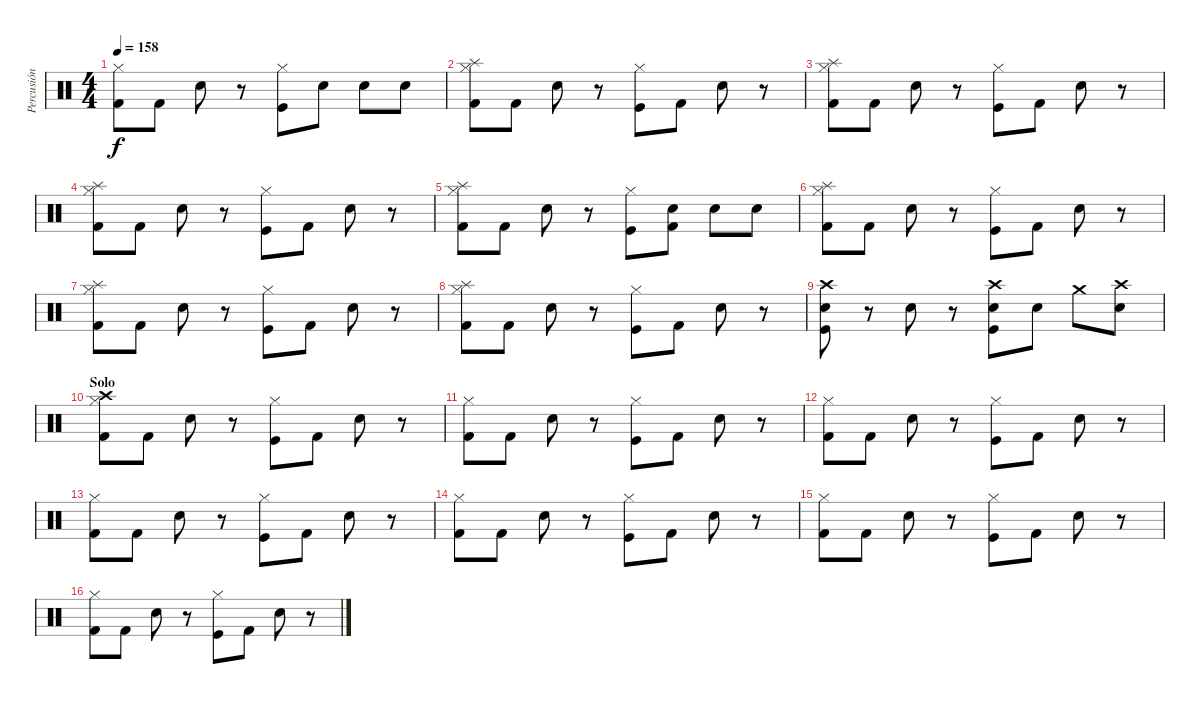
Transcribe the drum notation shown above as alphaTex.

\track ("Percusión" "Percusión") {instrument percussion}
\staff {score}
\articulation defaults
\ts (4 4)
\tempo 158
\clef neutral
\ks c
("Hi-Hat (closed)" "Kick (hit) 2").8{dy f} "Kick (hit) 2".8 "Electric Snare (hit)".8 r.8 ("Hi-Hat (closed)" "Kick (hit)").8 "Electric Snare (hit)".8 "Electric Snare (hit)".8 "Electric Snare (hit)".8 |
("Hi-Hat (closed)" "Splash (hit)" "Kick (hit) 2").8 "Kick (hit) 2".8 "Electric Snare (hit)".8 r.8 ("Hi-Hat (closed)" "Kick (hit)").8 "Kick (hit) 2".8 "Electric Snare (hit)".8 r.8 |
("Hi-Hat (closed)" "Splash (hit)" "Kick (hit) 2").8 "Kick (hit) 2".8 "Electric Snare (hit)".8 r.8 ("Hi-Hat (closed)" "Kick (hit)").8 "Kick (hit) 2".8 "Electric Snare (hit)".8 r.8 |
("Hi-Hat (closed)" "Splash (hit)" "Kick (hit) 2").8 "Kick (hit) 2".8 "Electric Snare (hit)".8 r.8 ("Hi-Hat (closed)" "Kick (hit)").8 "Kick (hit) 2".8 "Electric Snare (hit)".8 r.8 |
("Hi-Hat (closed)" "Splash (hit)" "Kick (hit) 2").8 "Kick (hit) 2".8 "Electric Snare (hit)".8 r.8 ("Hi-Hat (closed)" "Kick (hit)").8 ("Electric Snare (hit)" "Kick (hit) 2").8 "Electric Snare (hit)".8 "Electric Snare (hit)".8 |
("Hi-Hat (closed)" "Splash (hit)" "Kick (hit) 2").8 "Kick (hit) 2".8 "Electric Snare (hit)".8 r.8 ("Hi-Hat (closed)" "Kick (hit)").8 "Kick (hit) 2".8 "Electric Snare (hit)".8 r.8 |
("Hi-Hat (closed)" "Splash (hit)" "Kick (hit) 2").8 "Kick (hit) 2".8 "Electric Snare (hit)".8 r.8 ("Hi-Hat (closed)" "Kick (hit)").8 "Kick (hit) 2".8 "Electric Snare (hit)".8 r.8 |
("Hi-Hat (closed)" "Splash (hit)" "Kick (hit) 2").8 "Kick (hit) 2".8 "Electric Snare (hit)".8 r.8 ("Hi-Hat (closed)" "Kick (hit)").8 "Kick (hit) 2".8 "Electric Snare (hit)".8 r.8 |
("Electric Snare (hit)" "Kick (hit)" "Crash high (hit)").8 r.8 "Electric Snare (hit)".8 r.8 ("Electric Snare (hit)" "Kick (hit)" "Crash high (hit)").8 "Electric Snare (hit)".8 "Crash medium (hit)".8 ("Electric Snare (hit)" "Crash high (hit)").8 |
\section ("" "Solo")
("Hi-Hat (closed)" "Kick (hit) 2" "Crash high (hit)").8 "Kick (hit) 2".8 "Electric Snare (hit)".8 r.8 ("Hi-Hat (closed)" "Kick (hit)").8 "Kick (hit) 2".8 "Electric Snare (hit)".8 r.8 |
("Hi-Hat (closed)" "Kick (hit) 2").8 "Kick (hit) 2".8 "Electric Snare (hit)".8 r.8 ("Hi-Hat (closed)" "Kick (hit)").8 "Kick (hit) 2".8 "Electric Snare (hit)".8 r.8 |
("Hi-Hat (closed)" "Kick (hit) 2").8 "Kick (hit) 2".8 "Electric Snare (hit)".8 r.8 ("Hi-Hat (closed)" "Kick (hit)").8 "Kick (hit) 2".8 "Electric Snare (hit)".8 r.8 |
("Hi-Hat (closed)" "Kick (hit) 2").8 "Kick (hit) 2".8 "Electric Snare (hit)".8 r.8 ("Hi-Hat (closed)" "Kick (hit)").8 "Kick (hit) 2".8 "Electric Snare (hit)".8 r.8 |
("Hi-Hat (closed)" "Kick (hit) 2").8 "Kick (hit) 2".8 "Electric Snare (hit)".8 r.8 ("Hi-Hat (closed)" "Kick (hit)").8 "Kick (hit) 2".8 "Electric Snare (hit)".8 r.8 |
("Hi-Hat (closed)" "Kick (hit) 2").8 "Kick (hit) 2".8 "Electric Snare (hit)".8 r.8 ("Hi-Hat (closed)" "Kick (hit)").8 "Kick (hit) 2".8 "Electric Snare (hit)".8 r.8 |
("Hi-Hat (closed)" "Kick (hit) 2").8 "Kick (hit) 2".8 "Electric Snare (hit)".8 r.8 ("Hi-Hat (closed)" "Kick (hit)").8 "Kick (hit) 2".8 "Electric Snare (hit)".8 r.8
